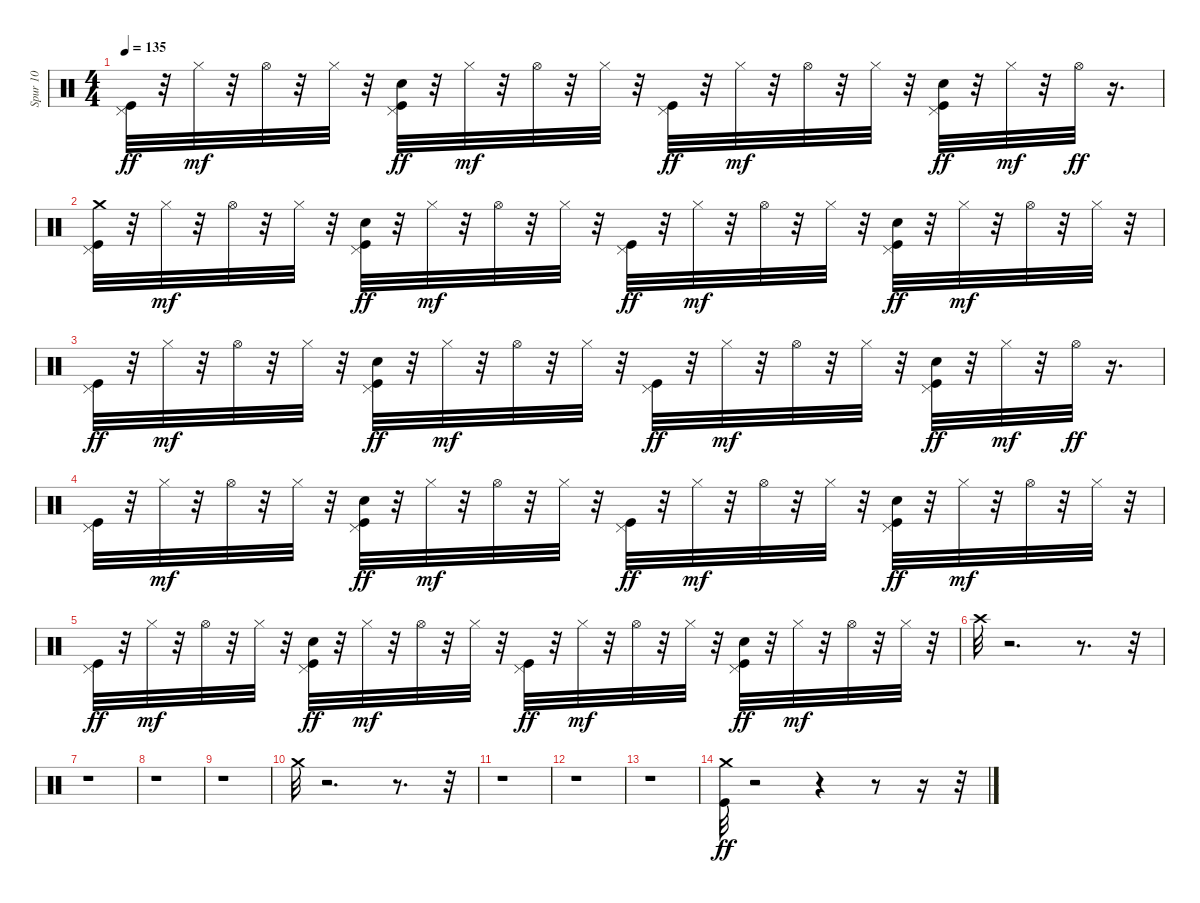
\track ("Spur 10" "Spur 10") {instrument percussion}
\staff {score}
\articulation defaults
\ts (4 4)
\tempo 135
\clef neutral
\ks c
("Kick (hit)" "Pedal Hi-Hat (hit)").32{dy ff} r.32 "Hi-Hat (closed)".32{dy mf} r.32 "Hi-Hat (open)".32 r.32 "Hi-Hat (closed)".32 r.32 ("Kick (hit)" "Hand Clap (hit)" "Pedal Hi-Hat (hit)").32{dy ff} r.32 "Hi-Hat (closed)".32{dy mf} r.32 "Hi-Hat (open)".32 r.32 "Hi-Hat (closed)".32 r.32 ("Kick (hit)" "Pedal Hi-Hat (hit)").32{dy ff} r.32 "Hi-Hat (closed)".32{dy mf} r.32 "Hi-Hat (open)".32 r.32 "Hi-Hat (closed)".32 r.32 ("Kick (hit)" "Hand Clap (hit)" "Pedal Hi-Hat (hit)").32{dy ff} r.32 "Hi-Hat (closed)".32{dy mf} r.32 "Hi-Hat (open)".32{dy ff} r.16{d} |
("Crash medium (hit)" "Kick (hit)" "Pedal Hi-Hat (hit)").32 r.32 "Hi-Hat (closed)".32{dy mf} r.32 "Hi-Hat (open)".32 r.32 "Hi-Hat (closed)".32 r.32 ("Kick (hit)" "Hand Clap (hit)" "Pedal Hi-Hat (hit)").32{dy ff} r.32 "Hi-Hat (closed)".32{dy mf} r.32 "Hi-Hat (open)".32 r.32 "Hi-Hat (closed)".32 r.32 ("Kick (hit)" "Pedal Hi-Hat (hit)").32{dy ff} r.32 "Hi-Hat (closed)".32{dy mf} r.32 "Hi-Hat (open)".32 r.32 "Hi-Hat (closed)".32 r.32 ("Kick (hit)" "Hand Clap (hit)" "Pedal Hi-Hat (hit)").32{dy ff} r.32 "Hi-Hat (closed)".32{dy mf} r.32 "Hi-Hat (open)".32 r.32 "Hi-Hat (closed)".32 r.32 |
("Kick (hit)" "Pedal Hi-Hat (hit)").32{dy ff} r.32 "Hi-Hat (closed)".32{dy mf} r.32 "Hi-Hat (open)".32 r.32 "Hi-Hat (closed)".32 r.32 ("Kick (hit)" "Hand Clap (hit)" "Pedal Hi-Hat (hit)").32{dy ff} r.32 "Hi-Hat (closed)".32{dy mf} r.32 "Hi-Hat (open)".32 r.32 "Hi-Hat (closed)".32 r.32 ("Kick (hit)" "Pedal Hi-Hat (hit)").32{dy ff} r.32 "Hi-Hat (closed)".32{dy mf} r.32 "Hi-Hat (open)".32 r.32 "Hi-Hat (closed)".32 r.32 ("Kick (hit)" "Hand Clap (hit)" "Pedal Hi-Hat (hit)").32{dy ff} r.32 "Hi-Hat (closed)".32{dy mf} r.32 "Hi-Hat (open)".32{dy ff} r.16{d} |
("Kick (hit)" "Pedal Hi-Hat (hit)").32 r.32 "Hi-Hat (closed)".32{dy mf} r.32 "Hi-Hat (open)".32 r.32 "Hi-Hat (closed)".32 r.32 ("Kick (hit)" "Hand Clap (hit)" "Pedal Hi-Hat (hit)").32{dy ff} r.32 "Hi-Hat (closed)".32{dy mf} r.32 "Hi-Hat (open)".32 r.32 "Hi-Hat (closed)".32 r.32 ("Kick (hit)" "Pedal Hi-Hat (hit)").32{dy ff} r.32 "Hi-Hat (closed)".32{dy mf} r.32 "Hi-Hat (open)".32 r.32 "Hi-Hat (closed)".32 r.32 ("Kick (hit)" "Hand Clap (hit)" "Pedal Hi-Hat (hit)").32{dy ff} r.32 "Hi-Hat (closed)".32{dy mf} r.32 "Hi-Hat (open)".32 r.32 "Hi-Hat (closed)".32 r.32 |
("Kick (hit)" "Pedal Hi-Hat (hit)").32{dy ff} r.32 "Hi-Hat (closed)".32{dy mf} r.32 "Hi-Hat (open)".32 r.32 "Hi-Hat (closed)".32 r.32 ("Kick (hit)" "Hand Clap (hit)" "Pedal Hi-Hat (hit)").32{dy ff} r.32 "Hi-Hat (closed)".32{dy mf} r.32 "Hi-Hat (open)".32 r.32 "Hi-Hat (closed)".32 r.32 ("Kick (hit)" "Pedal Hi-Hat (hit)").32{dy ff} r.32 "Hi-Hat (closed)".32{dy mf} r.32 "Hi-Hat (open)".32 r.32 "Hi-Hat (closed)".32 r.32 ("Kick (hit)" "Hand Clap (hit)" "Pedal Hi-Hat (hit)").32{dy ff} r.32 "Hi-Hat (closed)".32{dy mf} r.32 "Hi-Hat (open)".32 r.32 "Hi-Hat (closed)".32 r.32 |
"Crash high (hit)".32 r.2{d} r.8{d} r.32 |
r.1 |
r.1 |
r.1 |
"Crash medium (hit)".32 r.2{d} r.8{d} r.32 |
r.1 |
r.1 |
r.1 |
("Crash medium (hit)" "Kick (hit)").32{dy ff} r.2 r.4 r.8 r.16 r.32
